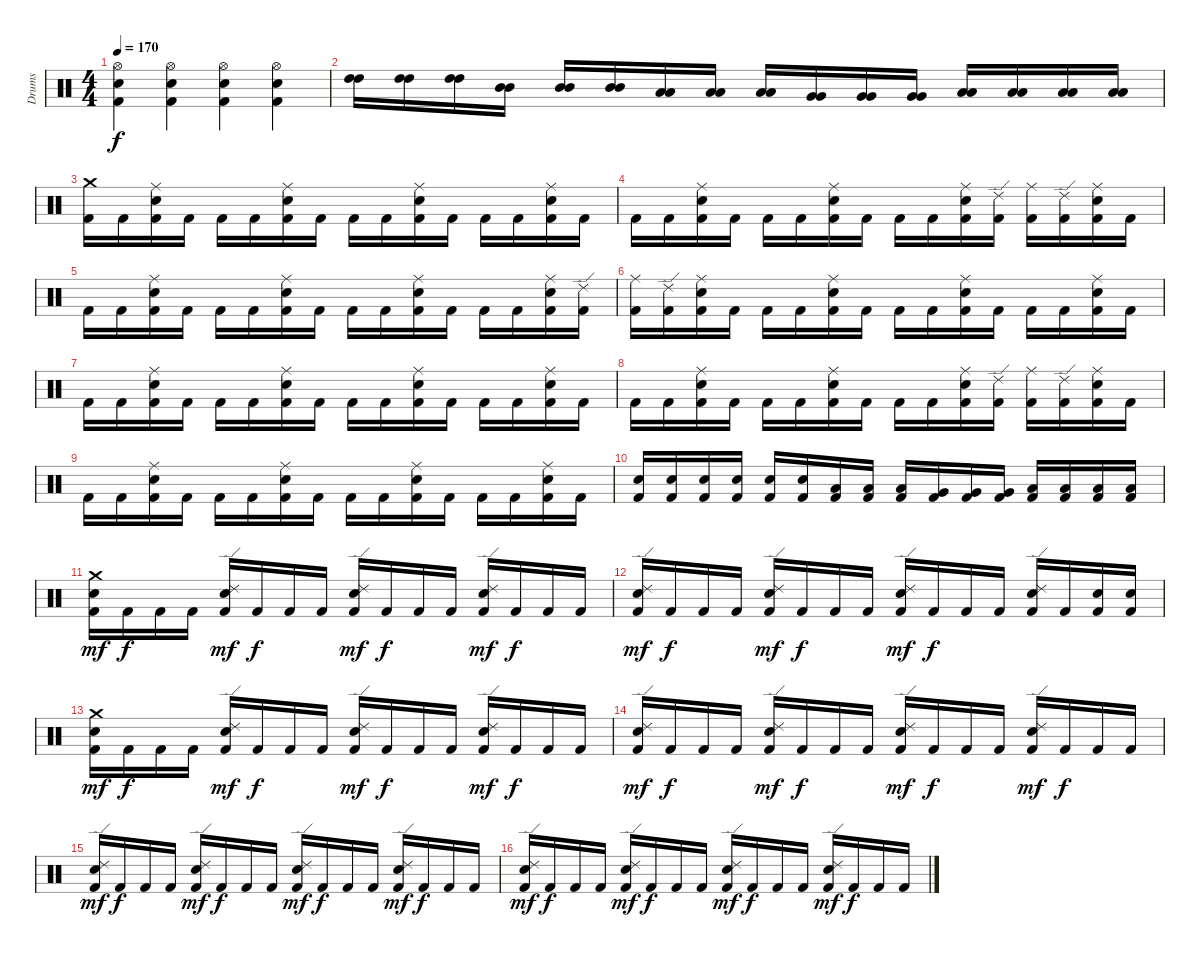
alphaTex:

\track ("Drums" "Drums") {instrument percussion}
\staff {score}
\articulation defaults
\ts (4 4)
\tempo 170
\clef neutral
\ks c
("Hi-Hat (open)" "Snare (hit) 2" "Kick (hit) 2").4{dy f} ("Hi-Hat (open)" "Snare (hit) 2" "Kick (hit) 2").4 ("Hi-Hat (open)" "Snare (hit) 2" "Kick (hit) 2").4 ("Hi-Hat (open)" "Snare (hit) 2" "Kick (hit) 2").4 |
("High Tom (hit)" "High Tom (hit)").16 ("High Tom (hit)" "High Tom (hit)").16 ("High Tom (hit)" "High Tom (hit)").16 ("Mid Tom (hit)" "Mid Tom (hit)").16 ("Mid Tom (hit)" "Mid Tom (hit)").16 ("Mid Tom (hit)" "Mid Tom (hit)").16 ("Low Tom (hit)" "Low Tom (hit)").16 ("Low Tom (hit)" "Low Tom (hit)").16 ("Low Tom (hit)" "Low Tom (hit)").16 ("Very Low Tom (hit)" "Very Low Tom (hit)").16 ("Very Low Tom (hit)" "Very Low Tom (hit)").16 ("Very Low Tom (hit)" "Very Low Tom (hit)").16 ("Low Floor Tom (hit)" "Low Floor Tom (hit)").16 ("Low Floor Tom (hit)" "Low Floor Tom (hit)").16 ("Low Floor Tom (hit)" "Low Floor Tom (hit)").16 ("Low Floor Tom (hit)" "Low Floor Tom (hit)").16 |
("Crash medium (hit)" "Kick (hit) 2").16 "Kick (hit) 2".16 ("Ride (middle)" "Snare (hit) 2" "Kick (hit) 2").16 "Kick (hit) 2".16 "Kick (hit) 2".16 "Kick (hit) 2".16 ("Ride (middle)" "Snare (hit) 2" "Kick (hit) 2").16 "Kick (hit) 2".16 "Kick (hit) 2".16 "Kick (hit) 2".16 ("Ride (middle)" "Snare (hit) 2" "Kick (hit) 2").16 "Kick (hit) 2".16 "Kick (hit) 2".16 "Kick (hit) 2".16 ("Ride (middle)" "Snare (hit) 2" "Kick (hit) 2").16 "Kick (hit) 2".16 |
"Kick (hit) 2".16 "Kick (hit) 2".16 ("Ride (middle)" "Snare (hit) 2" "Kick (hit) 2").16 "Kick (hit) 2".16 "Kick (hit) 2".16 "Kick (hit) 2".16 ("Ride (middle)" "Snare (hit) 2" "Kick (hit) 2").16 "Kick (hit) 2".16 "Kick (hit) 2".16 "Kick (hit) 2".16 ("Ride (middle)" "Snare (hit) 2" "Kick (hit) 2").16 ("Ride (edge) 2" "Kick (hit) 2").16 ("Ride (middle)" "Kick (hit) 2").16 ("Ride (edge) 2" "Kick (hit) 2").16 ("Ride (middle)" "Snare (hit) 2" "Kick (hit) 2").16 "Kick (hit) 2".16 |
"Kick (hit) 2".16 "Kick (hit) 2".16 ("Ride (middle)" "Snare (hit) 2" "Kick (hit) 2").16 "Kick (hit) 2".16 "Kick (hit) 2".16 "Kick (hit) 2".16 ("Ride (middle)" "Snare (hit) 2" "Kick (hit) 2").16 "Kick (hit) 2".16 "Kick (hit) 2".16 "Kick (hit) 2".16 ("Ride (middle)" "Snare (hit) 2" "Kick (hit) 2").16 "Kick (hit) 2".16 "Kick (hit) 2".16 "Kick (hit) 2".16 ("Ride (middle)" "Snare (hit) 2" "Kick (hit) 2").16 ("Ride (edge) 2" "Kick (hit) 2").16 |
("Ride (middle)" "Kick (hit) 2").16 ("Ride (edge) 2" "Kick (hit) 2").16 ("Ride (middle)" "Snare (hit) 2" "Kick (hit) 2").16 "Kick (hit) 2".16 "Kick (hit) 2".16 "Kick (hit) 2".16 ("Ride (middle)" "Snare (hit) 2" "Kick (hit) 2").16 "Kick (hit) 2".16 "Kick (hit) 2".16 "Kick (hit) 2".16 ("Ride (middle)" "Snare (hit) 2" "Kick (hit) 2").16 "Kick (hit) 2".16 "Kick (hit) 2".16 "Kick (hit) 2".16 ("Ride (middle)" "Snare (hit) 2" "Kick (hit) 2").16 "Kick (hit) 2".16 |
"Kick (hit) 2".16 "Kick (hit) 2".16 ("Ride (middle)" "Snare (hit) 2" "Kick (hit) 2").16 "Kick (hit) 2".16 "Kick (hit) 2".16 "Kick (hit) 2".16 ("Ride (middle)" "Snare (hit) 2" "Kick (hit) 2").16 "Kick (hit) 2".16 "Kick (hit) 2".16 "Kick (hit) 2".16 ("Ride (middle)" "Snare (hit) 2" "Kick (hit) 2").16 "Kick (hit) 2".16 "Kick (hit) 2".16 "Kick (hit) 2".16 ("Ride (middle)" "Snare (hit) 2" "Kick (hit) 2").16 "Kick (hit) 2".16 |
"Kick (hit) 2".16 "Kick (hit) 2".16 ("Ride (middle)" "Snare (hit) 2" "Kick (hit) 2").16 "Kick (hit) 2".16 "Kick (hit) 2".16 "Kick (hit) 2".16 ("Ride (middle)" "Snare (hit) 2" "Kick (hit) 2").16 "Kick (hit) 2".16 "Kick (hit) 2".16 "Kick (hit) 2".16 ("Ride (middle)" "Snare (hit) 2" "Kick (hit) 2").16 ("Ride (edge) 2" "Kick (hit) 2").16 ("Ride (middle)" "Kick (hit) 2").16 ("Ride (edge) 2" "Kick (hit) 2").16 ("Ride (middle)" "Snare (hit) 2" "Kick (hit) 2").16 "Kick (hit) 2".16 |
"Kick (hit) 2".16 "Kick (hit) 2".16 ("Ride (middle)" "Snare (hit) 2" "Kick (hit) 2").16 "Kick (hit) 2".16 "Kick (hit) 2".16 "Kick (hit) 2".16 ("Ride (middle)" "Snare (hit) 2" "Kick (hit) 2").16 "Kick (hit) 2".16 "Kick (hit) 2".16 "Kick (hit) 2".16 ("Ride (middle)" "Snare (hit) 2" "Kick (hit) 2").16 "Kick (hit) 2".16 "Kick (hit) 2".16 "Kick (hit) 2".16 ("Ride (middle)" "Snare (hit) 2" "Kick (hit) 2").16 "Kick (hit) 2".16 |
("Snare (hit) 2" "Kick (hit) 2").16 ("Snare (hit) 2" "Kick (hit) 2").16 ("Snare (hit) 2" "Kick (hit) 2").16 ("Snare (hit) 2" "Kick (hit) 2").16 ("Snare (hit) 2" "Kick (hit) 2").16 ("Snare (hit) 2" "Kick (hit) 2").16 ("Low Tom (hit)" "Kick (hit) 2").16 ("Low Tom (hit)" "Kick (hit) 2").16 ("Low Tom (hit)" "Kick (hit) 2").16 ("Very Low Tom (hit)" "Kick (hit) 2").16 ("Very Low Tom (hit)" "Kick (hit) 2").16 ("Very Low Tom (hit)" "Kick (hit) 2").16 ("Low Floor Tom (hit)" "Kick (hit) 2").16 ("Low Floor Tom (hit)" "Kick (hit) 2").16 ("Low Floor Tom (hit)" "Kick (hit) 2").16 ("Low Floor Tom (hit)" "Kick (hit) 2").16 |
("Crash medium (hit)" "Snare (hit) 2" "Kick (hit) 2").16{dy mf} "Kick (hit) 2".16{dy f} "Kick (hit) 2".16 "Kick (hit) 2".16 ("Ride (edge) 2" "Snare (hit) 2" "Kick (hit) 2").16{dy mf} "Kick (hit) 2".16{dy f} "Kick (hit) 2".16 "Kick (hit) 2".16 ("Ride (edge) 2" "Snare (hit) 2" "Kick (hit) 2").16{dy mf} "Kick (hit) 2".16{dy f} "Kick (hit) 2".16 "Kick (hit) 2".16 ("Ride (edge) 2" "Snare (hit) 2" "Kick (hit) 2").16{dy mf} "Kick (hit) 2".16{dy f} "Kick (hit) 2".16 "Kick (hit) 2".16 |
("Ride (edge) 2" "Snare (hit) 2" "Kick (hit) 2").16{dy mf} "Kick (hit) 2".16{dy f} "Kick (hit) 2".16 "Kick (hit) 2".16 ("Ride (edge) 2" "Snare (hit) 2" "Kick (hit) 2").16{dy mf} "Kick (hit) 2".16{dy f} "Kick (hit) 2".16 "Kick (hit) 2".16 ("Ride (edge) 2" "Snare (hit) 2" "Kick (hit) 2").16{dy mf} "Kick (hit) 2".16{dy f} "Kick (hit) 2".16 "Kick (hit) 2".16 ("Ride (edge) 2" "Snare (hit) 2" "Kick (hit) 2").16 "Kick (hit) 2".16 ("Snare (hit) 2" "Kick (hit) 2").16 ("Snare (hit) 2" "Kick (hit) 2").16 |
("Crash medium (hit)" "Snare (hit) 2" "Kick (hit) 2").16{dy mf} "Kick (hit) 2".16{dy f} "Kick (hit) 2".16 "Kick (hit) 2".16 ("Ride (edge) 2" "Snare (hit) 2" "Kick (hit) 2").16{dy mf} "Kick (hit) 2".16{dy f} "Kick (hit) 2".16 "Kick (hit) 2".16 ("Ride (edge) 2" "Snare (hit) 2" "Kick (hit) 2").16{dy mf} "Kick (hit) 2".16{dy f} "Kick (hit) 2".16 "Kick (hit) 2".16 ("Ride (edge) 2" "Snare (hit) 2" "Kick (hit) 2").16{dy mf} "Kick (hit) 2".16{dy f} "Kick (hit) 2".16 "Kick (hit) 2".16 |
("Ride (edge) 2" "Snare (hit) 2" "Kick (hit) 2").16{dy mf} "Kick (hit) 2".16{dy f} "Kick (hit) 2".16 "Kick (hit) 2".16 ("Ride (edge) 2" "Snare (hit) 2" "Kick (hit) 2").16{dy mf} "Kick (hit) 2".16{dy f} "Kick (hit) 2".16 "Kick (hit) 2".16 ("Ride (edge) 2" "Snare (hit) 2" "Kick (hit) 2").16{dy mf} "Kick (hit) 2".16{dy f} "Kick (hit) 2".16 "Kick (hit) 2".16 ("Ride (edge) 2" "Snare (hit) 2" "Kick (hit) 2").16{dy mf} "Kick (hit) 2".16{dy f} "Kick (hit) 2".16 "Kick (hit) 2".16 |
("Ride (edge) 2" "Snare (hit) 2" "Kick (hit) 2").16{dy mf} "Kick (hit) 2".16{dy f} "Kick (hit) 2".16 "Kick (hit) 2".16 ("Ride (edge) 2" "Snare (hit) 2" "Kick (hit) 2").16{dy mf} "Kick (hit) 2".16{dy f} "Kick (hit) 2".16 "Kick (hit) 2".16 ("Ride (edge) 2" "Snare (hit) 2" "Kick (hit) 2").16{dy mf} "Kick (hit) 2".16{dy f} "Kick (hit) 2".16 "Kick (hit) 2".16 ("Ride (edge) 2" "Snare (hit) 2" "Kick (hit) 2").16{dy mf} "Kick (hit) 2".16{dy f} "Kick (hit) 2".16 "Kick (hit) 2".16 |
("Ride (edge) 2" "Snare (hit) 2" "Kick (hit) 2").16{dy mf} "Kick (hit) 2".16{dy f} "Kick (hit) 2".16 "Kick (hit) 2".16 ("Ride (edge) 2" "Snare (hit) 2" "Kick (hit) 2").16{dy mf} "Kick (hit) 2".16{dy f} "Kick (hit) 2".16 "Kick (hit) 2".16 ("Ride (edge) 2" "Snare (hit) 2" "Kick (hit) 2").16{dy mf} "Kick (hit) 2".16{dy f} "Kick (hit) 2".16 "Kick (hit) 2".16 ("Ride (edge) 2" "Snare (hit) 2" "Kick (hit) 2").16{dy mf} "Kick (hit) 2".16{dy f} "Kick (hit) 2".16 "Kick (hit) 2".16
